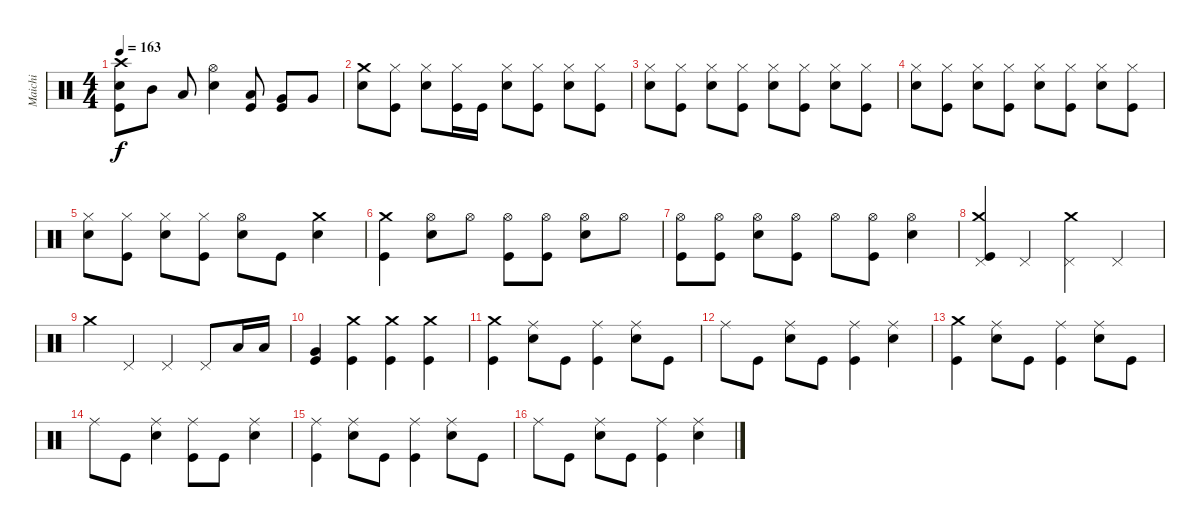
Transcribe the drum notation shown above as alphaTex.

\track ("Maichi" "Maichi") {instrument percussion}
\staff {score}
\articulation defaults
\ts (4 4)
\tempo 163
\clef neutral
\ks c
("Kick (hit)" "Electric Snare (hit)" "Crash high (hit)").8{dy f} "Mid Tom (hit)".8 "Low Tom (hit)".8 ("Hi-Hat (open)" "Electric Snare (hit)").4 ("Kick (hit)" "Low Tom (hit)").8 ("Kick (hit)" "Very Low Tom (hit)").8 "Very Low Tom (hit)".8 |
("Electric Snare (hit)" "Crash medium (hit)").8 ("Hi-Hat (closed)" "Kick (hit)").8 ("Hi-Hat (closed)" "Electric Snare (hit)").8 ("Hi-Hat (closed)" "Kick (hit)").16 "Kick (hit)".16 ("Electric Snare (hit)" "Hi-Hat (closed)").8 ("Hi-Hat (closed)" "Kick (hit)").8 ("Hi-Hat (closed)" "Electric Snare (hit)").8 ("Hi-Hat (closed)" "Kick (hit)").8 |
("Hi-Hat (closed)" "Electric Snare (hit)").8 ("Kick (hit)" "Hi-Hat (closed)").8 ("Electric Snare (hit)" "Hi-Hat (closed)").8 ("Hi-Hat (closed)" "Kick (hit)").8 ("Electric Snare (hit)" "Hi-Hat (closed)").8 ("Kick (hit)" "Hi-Hat (closed)").8 ("Electric Snare (hit)" "Hi-Hat (closed)").8 ("Kick (hit)" "Hi-Hat (closed)").8 |
("Hi-Hat (closed)" "Electric Snare (hit)").8 ("Hi-Hat (closed)" "Kick (hit)").8 ("Electric Snare (hit)" "Hi-Hat (closed)").8 ("Hi-Hat (closed)" "Kick (hit)").8 ("Electric Snare (hit)" "Hi-Hat (closed)").8 ("Hi-Hat (closed)" "Kick (hit)").8 ("Hi-Hat (closed)" "Electric Snare (hit)").8 ("Hi-Hat (closed)" "Kick (hit)").8 |
("Electric Snare (hit)" "Hi-Hat (closed)").8 ("Kick (hit)" "Hi-Hat (closed)").8 ("Electric Snare (hit)" "Hi-Hat (closed)").8 ("Hi-Hat (closed)" "Kick (hit)").8 ("Hi-Hat (open)" "Electric Snare (hit)").8 "Kick (hit)".8 ("Crash medium (hit)" "Electric Snare (hit)").4 |
("Kick (hit)" "Crash medium (hit)").4 ("Electric Snare (hit)" "Hi-Hat (open)").8 "Hi-Hat (open)".8 ("Hi-Hat (open)" "Kick (hit)").8 ("Kick (hit)" "Hi-Hat (open)").8 ("Electric Snare (hit)" "Hi-Hat (open)").8 "Hi-Hat (open)".8 |
("Kick (hit)" "Hi-Hat (open)").8 ("Hi-Hat (open)" "Kick (hit)").8 ("Electric Snare (hit)" "Hi-Hat (open)").8 ("Kick (hit)" "Hi-Hat (open)").8 "Hi-Hat (open)".8 ("Hi-Hat (open)" "Kick (hit)").8 ("Hi-Hat (open)" "Electric Snare (hit)").4 |
("Crash medium (hit)" "Kick (hit)" "Pedal Hi-Hat (hit)").4 "Pedal Hi-Hat (hit)".4 ("Crash medium (hit)" "Pedal Hi-Hat (hit)").4 "Pedal Hi-Hat (hit)".4 |
"Crash medium (hit)".4 "Pedal Hi-Hat (hit)".4 "Pedal Hi-Hat (hit)".4 "Pedal Hi-Hat (hit)".8 "Low Tom (hit)".16 "Low Tom (hit)".16 |
("Very Low Tom (hit)" "Kick (hit)").4 ("Kick (hit)" "Crash medium (hit)").4 ("Crash medium (hit)" "Kick (hit)").4 ("Kick (hit)" "Crash medium (hit)").4 |
("Crash medium (hit)" "Kick (hit)").4 ("Electric Snare (hit)" "Ride (middle)").8 "Kick (hit)".8 ("Ride (middle)" "Kick (hit)").4 ("Electric Snare (hit)" "Ride (middle)").8 "Kick (hit)".8 |
"Ride (middle)".8 "Kick (hit)".8 ("Ride (middle)" "Electric Snare (hit)").8 "Kick (hit)".8 ("Ride (middle)" "Kick (hit)").4 ("Electric Snare (hit)" "Ride (middle)").4 |
("Kick (hit)" "Crash medium (hit)").4 ("Ride (middle)" "Electric Snare (hit)").8 "Kick (hit)".8 ("Ride (middle)" "Kick (hit)").4 ("Electric Snare (hit)" "Ride (middle)").8 "Kick (hit)".8 |
"Ride (middle)".8 "Kick (hit)".8 ("Ride (middle)" "Electric Snare (hit)").4 ("Kick (hit)" "Ride (middle)").8 "Kick (hit)".8 ("Electric Snare (hit)" "Ride (middle)").4 |
("Ride (middle)" "Kick (hit)").4 ("Ride (middle)" "Electric Snare (hit)").8 "Kick (hit)".8 ("Kick (hit)" "Ride (middle)").4 ("Electric Snare (hit)" "Ride (middle)").8 "Kick (hit)".8 |
"Ride (middle)".8 "Kick (hit)".8 ("Electric Snare (hit)" "Ride (middle)").8 "Kick (hit)".8 ("Kick (hit)" "Ride (middle)").4 ("Ride (middle)" "Electric Snare (hit)").4
